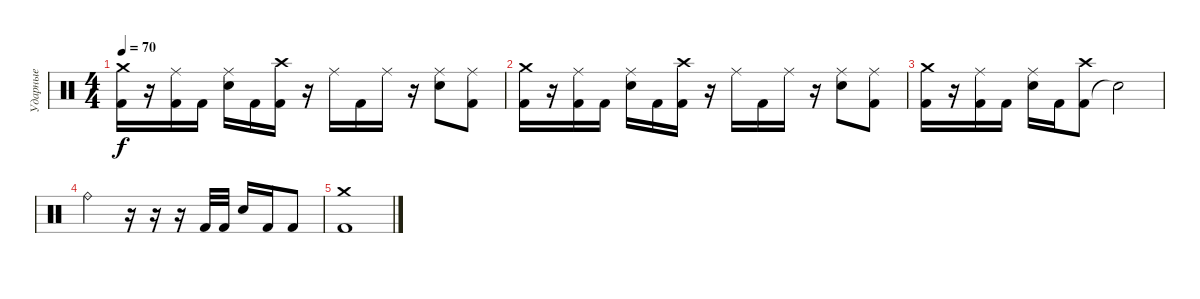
\track ("Ударные" "Ударные") {instrument percussion}
\staff {score}
\articulation defaults
\ts (4 4)
\tempo 70
\clef neutral
\ks c
("Crash medium (hit)" "Kick (hit) 2").16{dy f} r.16 ("Ride (middle)" "Kick (hit) 2").16 "Kick (hit) 2".16 ("Ride (middle)" "Electric Snare (hit)").16 "Kick (hit) 2".16 ("Kick (hit) 2" "Crash high (hit)").16 r.16 "Ride (middle)".16 "Kick (hit) 2".16 "Ride (middle)".16 r.16 ("Ride (middle)" "Electric Snare (hit)").8 ("Ride (middle)" "Kick (hit) 2").8 |
("Crash medium (hit)" "Kick (hit) 2").16 r.16 ("Ride (middle)" "Kick (hit) 2").16 "Kick (hit) 2".16 ("Ride (middle)" "Electric Snare (hit)").16 "Kick (hit) 2".16 ("Kick (hit) 2" "Crash high (hit)").16 r.16 "Ride (middle)".16 "Kick (hit) 2".16 "Ride (middle)".16 r.16 ("Ride (middle)" "Electric Snare (hit)").8 ("Ride (middle)" "Kick (hit) 2").8 |
("Crash medium (hit)" "Kick (hit) 2").16 r.16 ("Ride (middle)" "Kick (hit) 2").16 "Kick (hit) 2".16 ("Ride (middle)" "Electric Snare (hit)").16 "Kick (hit) 2".16 ("Kick (hit) 2" "Crash high (hit)").8 "Snare (hit)"{t}.2 |
"Ride (bell)".2 r.16 r.16 r.16 "Kick (hit) 2".32 "Kick (hit) 2".32 "Electric Snare (hit)".16 "Kick (hit) 2".16 "Kick (hit) 2".8 |
("Crash medium (hit)" "Kick (hit) 2").1
